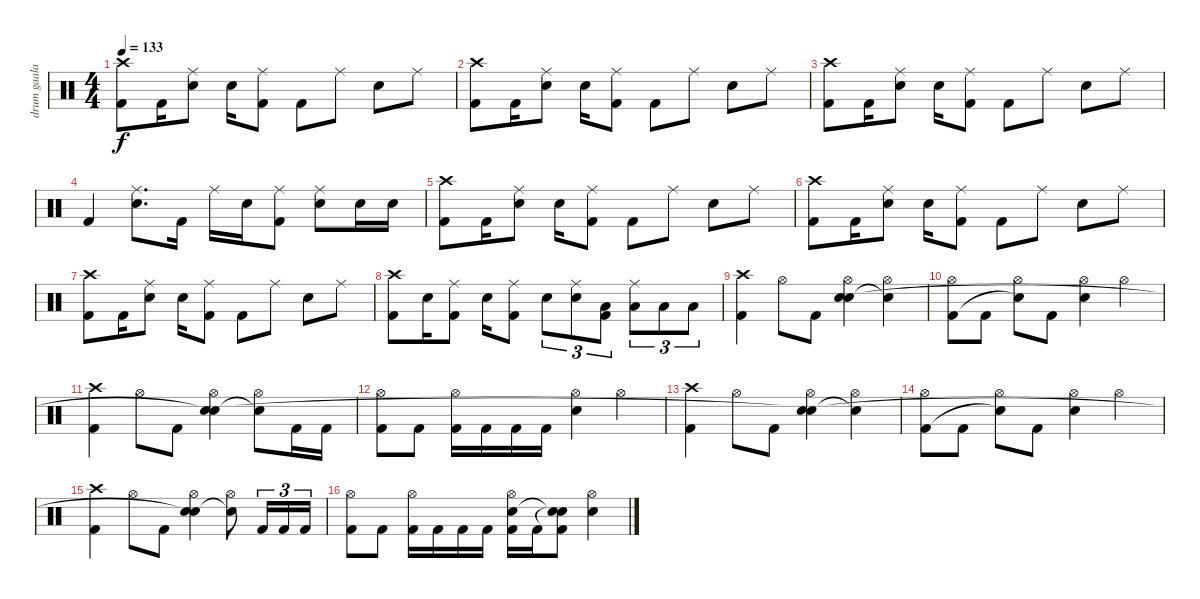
\track ("drum gaalaas" "drum gaala") {instrument percussion}
\staff {score}
\articulation defaults
\ts (4 4)
\tempo 133
\clef neutral
\ks c
("Crash high (hit)" "Kick (hit) 2").8{dy f} "Kick (hit) 2".16 ("Ride (middle)" "Snare (hit) 2").8 "Snare (hit) 2".16 ("Ride (middle)" "Kick (hit) 2").8 "Kick (hit) 2".8 "Ride (middle)".8 "Snare (hit) 2".8 "Ride (middle)".8 |
("Crash high (hit)" "Kick (hit) 2").8 "Kick (hit) 2".16 ("Ride (middle)" "Snare (hit) 2").8 "Snare (hit) 2".16 ("Ride (middle)" "Kick (hit) 2").8 "Kick (hit) 2".8 "Ride (middle)".8 "Snare (hit) 2".8 "Ride (middle)".8 |
("Crash high (hit)" "Kick (hit) 2").8 "Kick (hit) 2".16 ("Ride (middle)" "Snare (hit) 2").8 "Snare (hit) 2".16 ("Ride (middle)" "Kick (hit) 2").8 "Kick (hit) 2".8 "Ride (middle)".8 "Snare (hit) 2".8 "Ride (middle)".8 |
"Kick (hit) 2".4 ("Ride (middle)" "Snare (hit) 2").8{d} "Kick (hit) 2".16 "Ride (middle)".16 "Snare (hit) 2".16 ("Ride (middle)" "Kick (hit) 2").8 ("Ride (middle)" "Snare (hit) 2").8 "Snare (hit) 2".16 "Snare (hit) 2".16 |
("Crash high (hit)" "Kick (hit) 2").8 "Kick (hit) 2".16 ("Ride (middle)" "Snare (hit) 2").8 "Snare (hit) 2".16 ("Ride (middle)" "Kick (hit) 2").8 "Kick (hit) 2".8 "Ride (middle)".8 "Snare (hit) 2".8 "Ride (middle)".8 |
("Crash high (hit)" "Kick (hit) 2").8 "Kick (hit) 2".16 ("Ride (middle)" "Snare (hit) 2").8 "Snare (hit) 2".16 ("Ride (middle)" "Kick (hit) 2").8 "Kick (hit) 2".8 "Ride (middle)".8 "Snare (hit) 2".8 "Ride (middle)".8 |
("Crash high (hit)" "Kick (hit) 2").8 "Kick (hit) 2".16 ("Ride (middle)" "Snare (hit) 2").8 "Snare (hit) 2".16 ("Ride (middle)" "Kick (hit) 2").8 "Kick (hit) 2".8 "Ride (middle)".8 "Snare (hit) 2".8 "Ride (middle)".8 |
("Crash high (hit)" "Kick (hit) 2").8 "Snare (hit) 2".16 ("Ride (middle)" "Kick (hit) 2").8 "Snare (hit) 2".16 ("Ride (middle)" "Kick (hit) 2").8 "Snare (hit) 2".8{tu (3 2)} ("Ride (middle)" "Snare (hit) 2").8{tu (3 2)} ("Low Tom (hit)" "Kick (hit) 2").8{tu (3 2)} ("Ride (middle)" "Low Tom (hit)").8{tu (3 2)} "Low Tom (hit)".8{tu (3 2)} "Low Tom (hit)".8{tu (3 2)} |
("Crash high (hit)" "Kick (hit) 2").4 "Hi-Hat (open)".8 "Kick (hit) 2".8 ("Hi-Hat (open)" "Snare (hit) 2" "Snare (hit)").4 ("Hi-Hat (open)" "Snare (hit)"{t}).4 |
("Hi-Hat (open)" "Kick (hit) 2").8 "Kick (hit) 2".8 ("Hi-Hat (open)" "Snare (hit)"{t}).8 "Kick (hit) 2".8 ("Hi-Hat (open)" "Snare (hit) 2").4 "Hi-Hat (open)".4 |
("Crash high (hit)" "Kick (hit) 2").4 "Hi-Hat (open)".8 "Kick (hit) 2".8 ("Hi-Hat (open)" "Snare (hit) 2" "Snare (hit)"{t}).4 ("Hi-Hat (open)" "Snare (hit)"{t}).8 "Kick (hit) 2".16 "Kick (hit) 2".16 |
("Hi-Hat (open)" "Kick (hit) 2").8 "Kick (hit) 2".8 ("Hi-Hat (open)" "Kick (hit) 2").16 "Kick (hit) 2".16 "Kick (hit) 2".16 "Kick (hit) 2".16 ("Hi-Hat (open)" "Snare (hit) 2").4 "Hi-Hat (open)".4 |
("Crash high (hit)" "Kick (hit) 2").4 "Hi-Hat (open)".8 "Kick (hit) 2".8 ("Hi-Hat (open)" "Snare (hit) 2" "Snare (hit)"{t}).4 ("Hi-Hat (open)" "Snare (hit)"{t}).4 |
("Hi-Hat (open)" "Kick (hit) 2").8 "Kick (hit) 2".8 ("Hi-Hat (open)" "Snare (hit)"{t}).8 "Kick (hit) 2".8 ("Hi-Hat (open)" "Snare (hit) 2").4 "Hi-Hat (open)".4 |
("Crash high (hit)" "Kick (hit) 2").4 "Hi-Hat (open)".8 "Kick (hit) 2".8 ("Hi-Hat (open)" "Snare (hit) 2" "Snare (hit)"{t}).4 ("Hi-Hat (open)" "Snare (hit)"{t}).8 "Kick (hit) 2".16{tu (3 2)} "Kick (hit) 2".16{tu (3 2)} "Kick (hit) 2".16{tu (3 2)} |
("Hi-Hat (open)" "Kick (hit) 2").8 "Kick (hit) 2".8 ("Hi-Hat (open)" "Kick (hit) 2").16 "Kick (hit) 2".16 "Kick (hit) 2".16 "Kick (hit) 2".16 ("Hi-Hat (open)" "Snare (hit) 2" "Kick (hit) 2").16 "Kick (hit) 2".16 ("Snare (hit)"{t} "Snare (hit)"{t} "Kick (hit) 2").8 ("Hi-Hat (open)" "Snare (hit) 2").4
